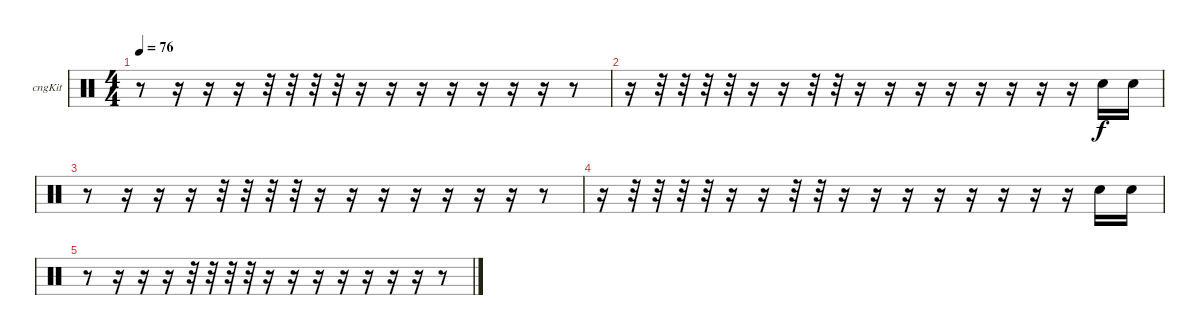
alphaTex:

\bracketExtendMode groupsimilarinstruments
\firstSystemTrackNameOrientation horizontal
\otherSystemsTrackNameOrientation horizontal
\track ("Congas" "cngKit") {instrument percussion}
\staff {score}
\articulation defaults
\ts (4 4)
\tempo 76
\clef neutral
\ks c
r.8{dy f} r.16 r.16 r.16 r.32 r.32 r.32 r.32 r.16 r.16 r.16 r.16 r.16 r.16 r.16 r.8 |
r.16 r.32 r.32 r.32 r.32 r.16 r.16 r.32 r.32 r.16 r.16 r.16 r.16 r.16 r.16 r.16 r.16 "Snare (hit) 2".16 "Snare (hit) 2".16 |
r.8 r.16 r.16 r.16 r.32 r.32 r.32 r.32 r.16 r.16 r.16 r.16 r.16 r.16 r.16 r.8 |
r.16 r.32 r.32 r.32 r.32 r.16 r.16 r.32 r.32 r.16 r.16 r.16 r.16 r.16 r.16 r.16 r.16 "Snare (hit) 2".16 "Snare (hit) 2".16 |
r.8 r.16 r.16 r.16 r.32 r.32 r.32 r.32 r.16 r.16 r.16 r.16 r.16 r.16 r.16 r.8
